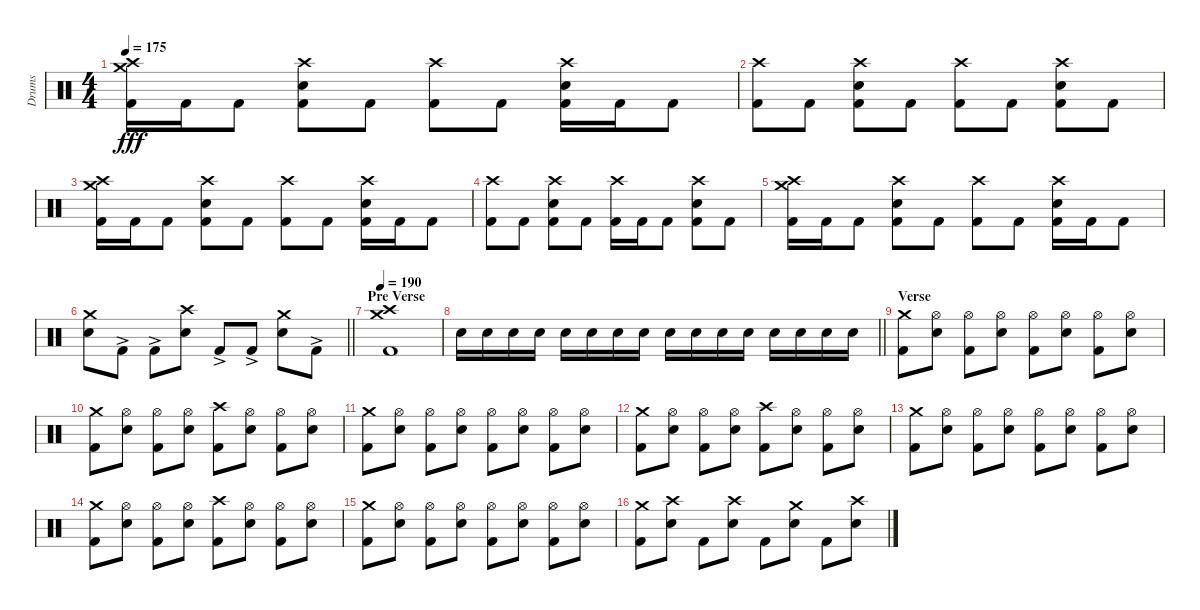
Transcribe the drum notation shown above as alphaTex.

\track ("Drums" "Drums") {instrument percussion}
\staff {score}
\articulation defaults
\ts (4 4)
\tempo 175
\clef neutral
\ks c
("Crash high (hit)" "Crash medium (hit)" "Kick (hit) 2").16{dy fff} "Kick (hit) 2".16 "Kick (hit) 2".8 ("Crash high (hit)" "Electric Snare (hit)" "Kick (hit) 2").8 "Kick (hit) 2".8 ("Crash high (hit)" "Kick (hit) 2").8 "Kick (hit) 2".8 ("Crash high (hit)" "Electric Snare (hit)" "Kick (hit) 2").16 "Kick (hit) 2".16 "Kick (hit) 2".8 |
("Crash high (hit)" "Kick (hit) 2").8 "Kick (hit) 2".8 ("Crash high (hit)" "Electric Snare (hit)" "Kick (hit) 2").8 "Kick (hit) 2".8 ("Crash high (hit)" "Kick (hit) 2").8 "Kick (hit) 2".8 ("Crash high (hit)" "Electric Snare (hit)" "Kick (hit) 2").8 "Kick (hit) 2".8 |
("Crash high (hit)" "Crash medium (hit)" "Kick (hit) 2").16 "Kick (hit) 2".16 "Kick (hit) 2".8 ("Crash high (hit)" "Electric Snare (hit)" "Kick (hit) 2").8 "Kick (hit) 2".8 ("Crash high (hit)" "Kick (hit) 2").8 "Kick (hit) 2".8 ("Crash high (hit)" "Electric Snare (hit)" "Kick (hit) 2").16 "Kick (hit) 2".16 "Kick (hit) 2".8 |
("Crash high (hit)" "Kick (hit) 2").8 "Kick (hit) 2".8 ("Crash high (hit)" "Electric Snare (hit)" "Kick (hit) 2").8 "Kick (hit) 2".8 ("Crash high (hit)" "Kick (hit) 2").16 "Kick (hit) 2".16 "Kick (hit) 2".8 ("Crash high (hit)" "Electric Snare (hit)" "Kick (hit) 2").8 "Kick (hit) 2".8 |
("Crash high (hit)" "Crash medium (hit)" "Kick (hit) 2").16 "Kick (hit) 2".16 "Kick (hit) 2".8 ("Crash high (hit)" "Electric Snare (hit)" "Kick (hit) 2").8 "Kick (hit) 2".8 ("Crash high (hit)" "Kick (hit) 2").8 "Kick (hit) 2".8 ("Crash high (hit)" "Electric Snare (hit)" "Kick (hit) 2").16 "Kick (hit) 2".16 "Kick (hit) 2".8 |
\barLineRight lightlight
("Crash medium (hit)" "Electric Snare (hit)").8 "Kick (hit) 2"{ac}.8 "Kick (hit) 2"{ac}.8 ("Crash high (hit)" "Electric Snare (hit)").8 "Kick (hit) 2"{ac}.8 "Kick (hit) 2"{ac}.8 ("Crash medium (hit)" "Electric Snare (hit)").8 "Kick (hit) 2"{ac}.8 |
\section ("" "Pre Verse")
\tempo 190
("Crash high (hit)" "Crash medium (hit)" "Kick (hit) 2").1 |
\barLineRight lightlight "Electric Snare (hit)".16 "Electric Snare (hit)".16 "Electric Snare (hit)".16 "Electric Snare (hit)".16 "Electric Snare (hit)".16 "Electric Snare (hit)".16 "Electric Snare (hit)".16 "Electric Snare (hit)".16 "Electric Snare (hit)".16 "Electric Snare (hit)".16 "Electric Snare (hit)".16 "Electric Snare (hit)".16 "Electric Snare (hit)".16 "Electric Snare (hit)".16 "Electric Snare (hit)".16 "Electric Snare (hit)".16
|
\section ("" "Verse")
("Crash medium (hit)" "Kick (hit) 2").8 ("Hi-Hat (open)" "Electric Snare (hit)").8 ("Hi-Hat (open)" "Kick (hit) 2").8 ("Hi-Hat (open)" "Electric Snare (hit)").8 ("Hi-Hat (open)" "Kick (hit) 2").8 ("Hi-Hat (open)" "Electric Snare (hit)").8 ("Hi-Hat (open)" "Kick (hit) 2").8 ("Hi-Hat (open)" "Electric Snare (hit)").8 |
("Crash medium (hit)" "Kick (hit) 2").8 ("Hi-Hat (open)" "Electric Snare (hit)").8 ("Hi-Hat (open)" "Kick (hit) 2").8 ("Hi-Hat (open)" "Electric Snare (hit)").8 ("Crash high (hit)" "Kick (hit) 2").8 ("Hi-Hat (open)" "Electric Snare (hit)").8 ("Hi-Hat (open)" "Kick (hit) 2").8 ("Hi-Hat (open)" "Electric Snare (hit)").8 |
("Crash medium (hit)" "Kick (hit) 2").8 ("Hi-Hat (open)" "Electric Snare (hit)").8 ("Hi-Hat (open)" "Kick (hit) 2").8 ("Hi-Hat (open)" "Electric Snare (hit)").8 ("Hi-Hat (open)" "Kick (hit) 2").8 ("Hi-Hat (open)" "Electric Snare (hit)").8 ("Hi-Hat (open)" "Kick (hit) 2").8 ("Hi-Hat (open)" "Electric Snare (hit)").8 |
("Crash medium (hit)" "Kick (hit) 2").8 ("Hi-Hat (open)" "Electric Snare (hit)").8 ("Hi-Hat (open)" "Kick (hit) 2").8 ("Hi-Hat (open)" "Electric Snare (hit)").8 ("Crash high (hit)" "Kick (hit) 2").8 ("Hi-Hat (open)" "Electric Snare (hit)").8 ("Hi-Hat (open)" "Kick (hit) 2").8 ("Hi-Hat (open)" "Electric Snare (hit)").8 |
("Crash medium (hit)" "Kick (hit) 2").8 ("Hi-Hat (open)" "Electric Snare (hit)").8 ("Hi-Hat (open)" "Kick (hit) 2").8 ("Hi-Hat (open)" "Electric Snare (hit)").8 ("Hi-Hat (open)" "Kick (hit) 2").8 ("Hi-Hat (open)" "Electric Snare (hit)").8 ("Hi-Hat (open)" "Kick (hit) 2").8 ("Hi-Hat (open)" "Electric Snare (hit)").8 |
("Crash medium (hit)" "Kick (hit) 2").8 ("Hi-Hat (open)" "Electric Snare (hit)").8 ("Hi-Hat (open)" "Kick (hit) 2").8 ("Hi-Hat (open)" "Electric Snare (hit)").8 ("Crash high (hit)" "Kick (hit) 2").8 ("Hi-Hat (open)" "Electric Snare (hit)").8 ("Hi-Hat (open)" "Kick (hit) 2").8 ("Hi-Hat (open)" "Electric Snare (hit)").8 |
("Crash medium (hit)" "Kick (hit) 2").8 ("Hi-Hat (open)" "Electric Snare (hit)").8 ("Hi-Hat (open)" "Kick (hit) 2").8 ("Hi-Hat (open)" "Electric Snare (hit)").8 ("Hi-Hat (open)" "Kick (hit) 2").8 ("Hi-Hat (open)" "Electric Snare (hit)").8 ("Hi-Hat (open)" "Kick (hit) 2").8 ("Hi-Hat (open)" "Electric Snare (hit)").8 |
("Crash medium (hit)" "Kick (hit) 2").8 ("Crash high (hit)" "Electric Snare (hit)").8 "Kick (hit) 2".8 ("Crash high (hit)" "Electric Snare (hit)").8 "Kick (hit) 2".8 ("Crash medium (hit)" "Electric Snare (hit)").8 "Kick (hit) 2".8 ("Crash high (hit)" "Electric Snare (hit)").8
